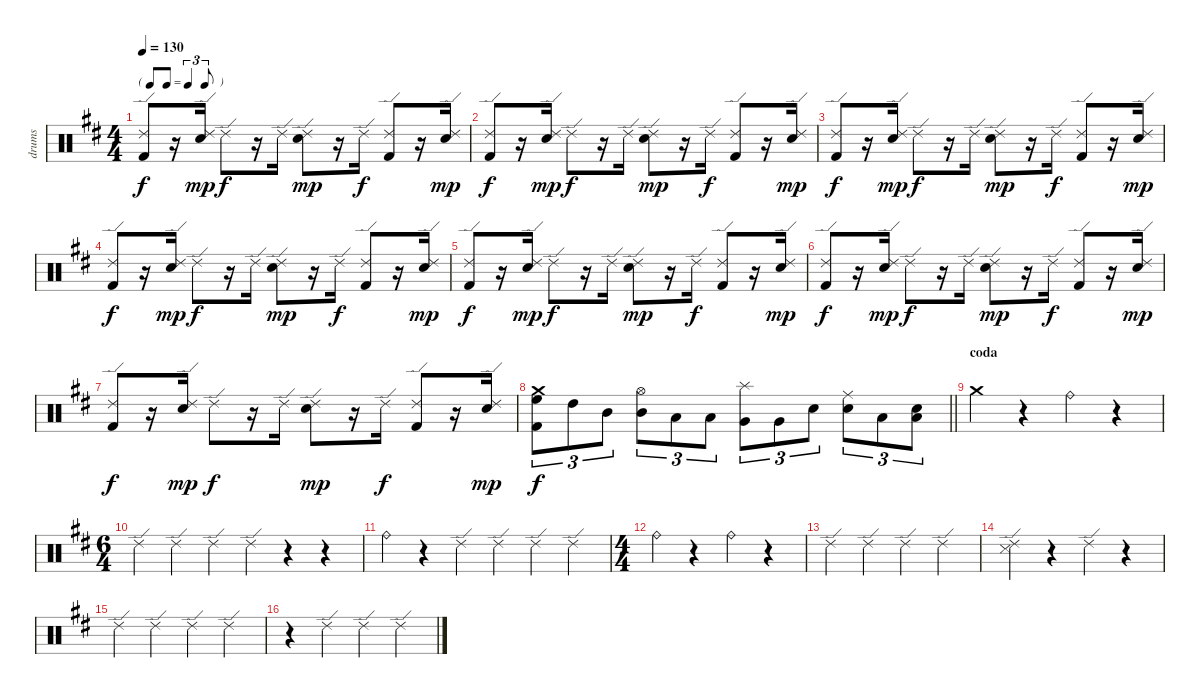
\track ("drums" "drums") {instrument percussion}
\staff {score}
\articulation defaults
\ts (4 4)
\tf triplet8th
\tempo 130
\clef neutral
\ks d
("Ride (edge) 2" "Kick (hit) 2").8{dy f} r.16 ("Ride (edge) 2" "Electric Snare (hit)").16{dy mp} "Ride (edge) 2".8{dy f} r.16 "Ride (edge) 2".16 ("Ride (edge) 2" "Electric Snare (hit)").8{dy mp} r.16 "Ride (edge) 2".16{dy f} ("Ride (edge) 2" "Kick (hit) 2").8 r.16 ("Ride (edge) 2" "Electric Snare (hit)").16{dy mp} |
("Ride (edge) 2" "Kick (hit) 2").8{dy f} r.16 ("Ride (edge) 2" "Electric Snare (hit)").16{dy mp} "Ride (edge) 2".8{dy f} r.16 "Ride (edge) 2".16 ("Ride (edge) 2" "Electric Snare (hit)").8{dy mp} r.16 "Ride (edge) 2".16{dy f} ("Ride (edge) 2" "Kick (hit) 2").8 r.16 ("Ride (edge) 2" "Electric Snare (hit)").16{dy mp} |
("Ride (edge) 2" "Kick (hit) 2").8{dy f} r.16 ("Ride (edge) 2" "Electric Snare (hit)").16{dy mp} "Ride (edge) 2".8{dy f} r.16 "Ride (edge) 2".16 ("Ride (edge) 2" "Electric Snare (hit)").8{dy mp} r.16 "Ride (edge) 2".16{dy f} ("Ride (edge) 2" "Kick (hit) 2").8 r.16 ("Ride (edge) 2" "Electric Snare (hit)").16{dy mp} |
("Ride (edge) 2" "Kick (hit) 2").8{dy f} r.16 ("Ride (edge) 2" "Electric Snare (hit)").16{dy mp} "Ride (edge) 2".8{dy f} r.16 "Ride (edge) 2".16 ("Ride (edge) 2" "Electric Snare (hit)").8{dy mp} r.16 "Ride (edge) 2".16{dy f} ("Ride (edge) 2" "Kick (hit) 2").8 r.16 ("Ride (edge) 2" "Electric Snare (hit)").16{dy mp} |
("Ride (edge) 2" "Kick (hit) 2").8{dy f} r.16 ("Ride (edge) 2" "Electric Snare (hit)").16{dy mp} "Ride (edge) 2".8{dy f} r.16 "Ride (edge) 2".16 ("Ride (edge) 2" "Electric Snare (hit)").8{dy mp} r.16 "Ride (edge) 2".16{dy f} ("Ride (edge) 2" "Kick (hit) 2").8 r.16 ("Ride (edge) 2" "Electric Snare (hit)").16{dy mp} |
("Ride (edge) 2" "Kick (hit) 2").8{dy f} r.16 ("Ride (edge) 2" "Electric Snare (hit)").16{dy mp} "Ride (edge) 2".8{dy f} r.16 "Ride (edge) 2".16 ("Ride (edge) 2" "Electric Snare (hit)").8{dy mp} r.16 "Ride (edge) 2".16{dy f} ("Ride (edge) 2" "Kick (hit) 2").8 r.16 ("Ride (edge) 2" "Electric Snare (hit)").16{dy mp} |
("Ride (edge) 2" "Kick (hit) 2").8{dy f} r.16 ("Ride (edge) 2" "Electric Snare (hit)").16{dy mp} "Ride (edge) 2".8{dy f} r.16 "Ride (edge) 2".16 ("Ride (edge) 2" "Electric Snare (hit)").8{dy mp} r.16 "Ride (edge) 2".16{dy f} ("Ride (edge) 2" "Kick (hit) 2").8 r.16 ("Ride (edge) 2" "Electric Snare (hit)").16{dy mp} |
\barLineRight lightlight
("Crash medium (hit)" "High Floor Tom (hit)" "Kick (hit) 2").8{tu (3 2) dy f} "High Tom (hit)".8{tu (3 2)} "Mid Tom (hit)".8{tu (3 2)} ("Hi-Hat (open)" "Mid Tom (hit)").8{tu (3 2)} "Low Tom (hit)".8{tu (3 2)} "Low Tom (hit)".8{tu (3 2)} ("Splash (hit)" "Very Low Tom (hit)").8{tu (3 2)} "Very Low Tom (hit)".8{tu (3 2)} "Electric Snare (hit)".8{tu (3 2)} ("Ride (middle)" "Electric Snare (hit)").8{tu (3 2)} "Low Floor Tom (hit)".8{tu (3 2)} ("Electric Snare (hit)" "Low Floor Tom (hit)").8{tu (3 2)} |
\section ("" "coda")
"Crash medium (hit)".4 r.4 "Ride (bell)".4 r.4 |
\ts (6 4)
"Ride (edge) 2".4 "Ride (edge) 2".4 "Ride (edge) 2".4 "Ride (edge) 2".4 r.4 r.4 |
"Ride (bell)".4 r.4 "Ride (edge) 2".4 "Ride (edge) 2".4 "Ride (edge) 2".4 "Ride (edge) 2".4 |
\ts (4 4)
"Ride (bell)".4 r.4 "Ride (bell)".4 r.4 |
"Ride (edge) 2".4 "Ride (edge) 2".4 "Ride (edge) 2".4 "Ride (edge) 2".4 |
("Snare (side stick) 3" "Ride (edge) 2").4 r.4 "Ride (edge) 2".4 r.4 |
"Ride (edge) 2".4 "Ride (edge) 2".4 "Ride (edge) 2".4 "Ride (edge) 2".4 |
r.4 "Ride (edge) 2".4 "Ride (edge) 2".4 "Ride (edge) 2".4
